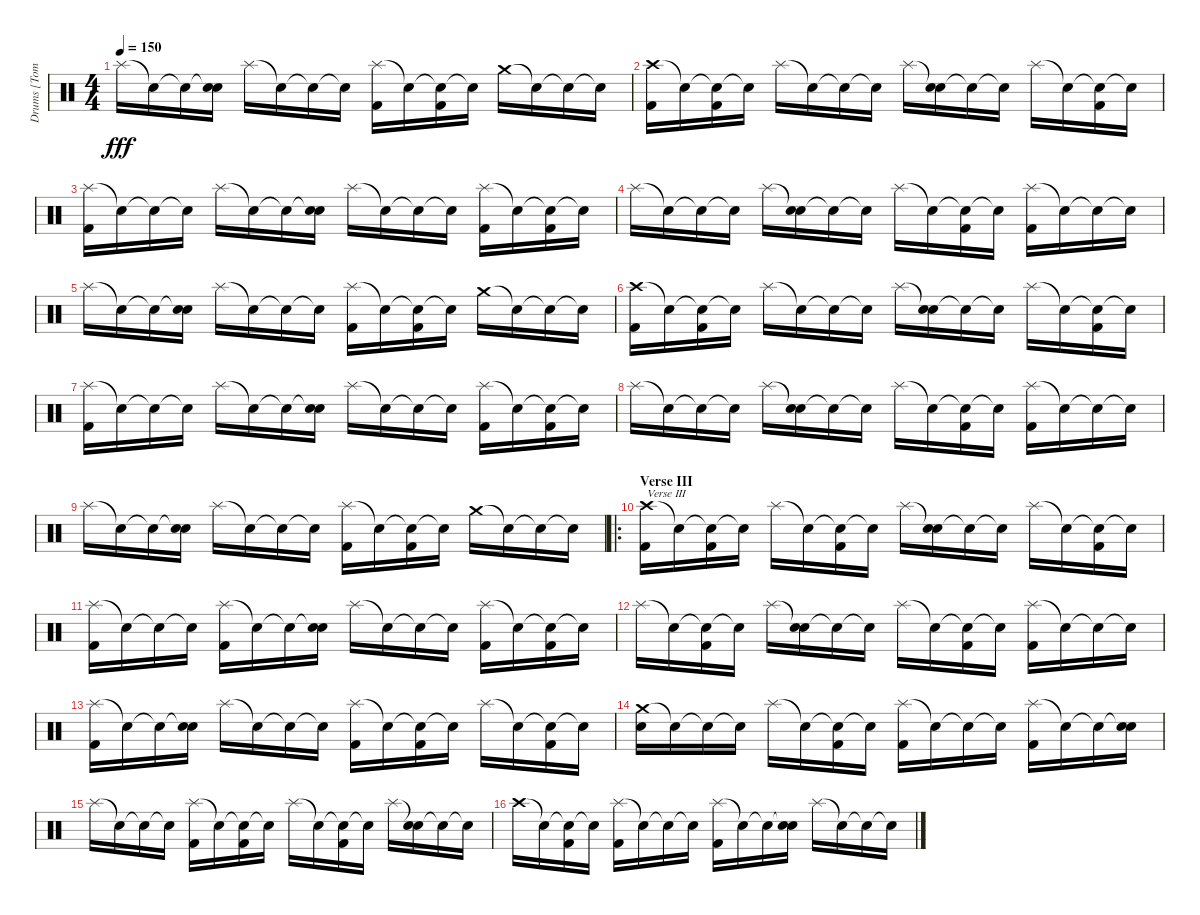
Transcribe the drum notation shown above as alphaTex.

\track ("Drums [Tomas Haake]" "Drums [Tom") {instrument percussion}
\staff {score}
\articulation defaults
\ts (4 4)
\tempo 150
\clef neutral
\ks c "Splash (hit)".16{dy fff} "Snare (hit)"{t}.16 "Snare (hit)"{t}.16
("Snare (hit)"{t} "Electric Snare (hit)").16 "Splash (hit)".16 "Snare (hit)"{t}.16 "Snare (hit)"{t}.16 "Snare (hit)"{t}.16 ("Splash (hit)" "Kick (hit) 2").16 "Snare (hit)"{t}.16 ("Snare (hit)"{t} "Kick (hit) 2").16 "Snare (hit)"{t}.16 "Crash medium (hit)".16 "Snare (hit)"{t}.16 "Snare (hit)"{t}.16 "Snare (hit)"{t}.16 |
("Crash high (hit)" "Kick (hit) 2").16 "Snare (hit)"{t}.16 ("Snare (hit)"{t} "Kick (hit) 2").16 "Snare (hit)"{t}.16 "Splash (hit)".16 "Snare (hit)"{t}.16 "Snare (hit)"{t}.16 "Snare (hit)"{t}.16 "Splash (hit)".16 ("Snare (hit)"{t} "Electric Snare (hit)").16 "Snare (hit)"{t}.16 "Snare (hit)"{t}.16 "Splash (hit)".16 "Snare (hit)"{t}.16 ("Snare (hit)"{t} "Kick (hit) 2").16 "Snare (hit)"{t}.16 |
("Splash (hit)" "Kick (hit) 2").16 "Snare (hit)"{t}.16 "Snare (hit)"{t}.16 "Snare (hit)"{t}.16 "Splash (hit)".16 "Snare (hit)"{t}.16 "Snare (hit)"{t}.16 ("Snare (hit)"{t} "Electric Snare (hit)").16 "Splash (hit)".16 "Snare (hit)"{t}.16 "Snare (hit)"{t}.16 "Snare (hit)"{t}.16 ("Splash (hit)" "Kick (hit) 2").16 "Snare (hit)"{t}.16 ("Snare (hit)"{t} "Kick (hit) 2").16 "Snare (hit)"{t}.16 |
"Splash (hit)".16 "Snare (hit)"{t}.16 "Snare (hit)"{t}.16 "Snare (hit)"{t}.16 "Splash (hit)".16 ("Snare (hit)"{t} "Electric Snare (hit)").16 "Snare (hit)"{t}.16 "Snare (hit)"{t}.16 "Splash (hit)".16 "Snare (hit)"{t}.16 ("Snare (hit)"{t} "Kick (hit) 2").16 "Snare (hit)"{t}.16 ("Splash (hit)" "Kick (hit) 2").16 "Snare (hit)"{t}.16 "Snare (hit)"{t}.16 "Snare (hit)"{t}.16 |
"Splash (hit)".16 "Snare (hit)"{t}.16 "Snare (hit)"{t}.16 ("Snare (hit)"{t} "Electric Snare (hit)").16 "Splash (hit)".16 "Snare (hit)"{t}.16 "Snare (hit)"{t}.16 "Snare (hit)"{t}.16 ("Splash (hit)" "Kick (hit) 2").16 "Snare (hit)"{t}.16 ("Snare (hit)"{t} "Kick (hit) 2").16 "Snare (hit)"{t}.16 "Crash medium (hit)".16 "Snare (hit)"{t}.16 "Snare (hit)"{t}.16 "Snare (hit)"{t}.16 |
("Crash high (hit)" "Kick (hit) 2").16 "Snare (hit)"{t}.16 ("Snare (hit)"{t} "Kick (hit) 2").16 "Snare (hit)"{t}.16 "Splash (hit)".16 "Snare (hit)"{t}.16 "Snare (hit)"{t}.16 "Snare (hit)"{t}.16 "Splash (hit)".16 ("Snare (hit)"{t} "Electric Snare (hit)").16 "Snare (hit)"{t}.16 "Snare (hit)"{t}.16 "Splash (hit)".16 "Snare (hit)"{t}.16 ("Snare (hit)"{t} "Kick (hit) 2").16 "Snare (hit)"{t}.16 |
("Splash (hit)" "Kick (hit) 2").16 "Snare (hit)"{t}.16 "Snare (hit)"{t}.16 "Snare (hit)"{t}.16 "Splash (hit)".16 "Snare (hit)"{t}.16 "Snare (hit)"{t}.16 ("Snare (hit)"{t} "Electric Snare (hit)").16 "Splash (hit)".16 "Snare (hit)"{t}.16 "Snare (hit)"{t}.16 "Snare (hit)"{t}.16 ("Splash (hit)" "Kick (hit) 2").16 "Snare (hit)"{t}.16 ("Snare (hit)"{t} "Kick (hit) 2").16 "Snare (hit)"{t}.16 |
"Splash (hit)".16 "Snare (hit)"{t}.16 "Snare (hit)"{t}.16 "Snare (hit)"{t}.16 "Splash (hit)".16 ("Snare (hit)"{t} "Electric Snare (hit)").16 "Snare (hit)"{t}.16 "Snare (hit)"{t}.16 "Splash (hit)".16 "Snare (hit)"{t}.16 ("Snare (hit)"{t} "Kick (hit) 2").16 "Snare (hit)"{t}.16 ("Splash (hit)" "Kick (hit) 2").16 "Snare (hit)"{t}.16 "Snare (hit)"{t}.16 "Snare (hit)"{t}.16 |
"Splash (hit)".16 "Snare (hit)"{t}.16 "Snare (hit)"{t}.16 ("Snare (hit)"{t} "Electric Snare (hit)").16 "Splash (hit)".16 "Snare (hit)"{t}.16 "Snare (hit)"{t}.16 "Snare (hit)"{t}.16 ("Splash (hit)" "Kick (hit) 2").16 "Snare (hit)"{t}.16 ("Snare (hit)"{t} "Kick (hit) 2").16 "Snare (hit)"{t}.16 "Crash medium (hit)".16 "Snare (hit)"{t}.16 "Snare (hit)"{t}.16 "Snare (hit)"{t}.16 |
\ro
\section ("" "Verse III")
("Crash high (hit)" "Kick (hit) 2").16{txt "Verse III"} "Snare (hit)"{t}.16 ("Snare (hit)"{t} "Kick (hit) 2").16 "Snare (hit)"{t}.16 "Splash (hit)".16 "Snare (hit)"{t}.16 ("Snare (hit)"{t} "Kick (hit) 2").16 "Snare (hit)"{t}.16 "Splash (hit)".16 ("Snare (hit)"{t} "Electric Snare (hit)").16 "Snare (hit)"{t}.16 "Snare (hit)"{t}.16 "Splash (hit)".16 "Snare (hit)"{t}.16 ("Snare (hit)"{t} "Kick (hit) 2").16 "Snare (hit)"{t}.16 |
("Splash (hit)" "Kick (hit) 2").16 "Snare (hit)"{t}.16 "Snare (hit)"{t}.16 "Snare (hit)"{t}.16 ("Splash (hit)" "Kick (hit) 2").16 "Snare (hit)"{t}.16 "Snare (hit)"{t}.16 ("Snare (hit)"{t} "Electric Snare (hit)").16 "Splash (hit)".16 "Snare (hit)"{t}.16 "Snare (hit)"{t}.16 "Snare (hit)"{t}.16 ("Splash (hit)" "Kick (hit) 2").16 "Snare (hit)"{t}.16 ("Snare (hit)"{t} "Kick (hit) 2").16 "Snare (hit)"{t}.16 |
"Splash (hit)".16 "Snare (hit)"{t}.16 ("Snare (hit)"{t} "Kick (hit) 2").16 "Snare (hit)"{t}.16 "Splash (hit)".16 ("Snare (hit)"{t} "Electric Snare (hit)").16 "Snare (hit)"{t}.16 "Snare (hit)"{t}.16 "Splash (hit)".16 "Snare (hit)"{t}.16 ("Snare (hit)"{t} "Kick (hit) 2").16 "Snare (hit)"{t}.16 ("Splash (hit)" "Kick (hit) 2").16 "Snare (hit)"{t}.16 "Snare (hit)"{t}.16 "Snare (hit)"{t}.16 |
("Splash (hit)" "Kick (hit) 2").16 "Snare (hit)"{t}.16 "Snare (hit)"{t}.16 ("Snare (hit)"{t} "Electric Snare (hit)").16 "Splash (hit)".16 "Snare (hit)"{t}.16 "Snare (hit)"{t}.16 "Snare (hit)"{t}.16 ("Splash (hit)" "Kick (hit) 2").16 "Snare (hit)"{t}.16 ("Snare (hit)"{t} "Kick (hit) 2").16 "Snare (hit)"{t}.16 "Splash (hit)".16 "Snare (hit)"{t}.16 ("Snare (hit)"{t} "Kick (hit) 2").16 "Snare (hit)"{t}.16 |
("Crash medium (hit)" "Electric Snare (hit)").16 "Snare (hit)"{t}.16 "Snare (hit)"{t}.16 "Snare (hit)"{t}.16 "Splash (hit)".16 "Snare (hit)"{t}.16 ("Snare (hit)"{t} "Kick (hit) 2").16 "Snare (hit)"{t}.16 ("Splash (hit)" "Kick (hit) 2").16 "Snare (hit)"{t}.16 "Snare (hit)"{t}.16 "Snare (hit)"{t}.16 ("Splash (hit)" "Kick (hit) 2").16 "Snare (hit)"{t}.16 "Snare (hit)"{t}.16 ("Snare (hit)"{t} "Electric Snare (hit)").16 |
"Splash (hit)".16 "Snare (hit)"{t}.16 "Snare (hit)"{t}.16 "Snare (hit)"{t}.16 ("Splash (hit)" "Kick (hit) 2").16 "Snare (hit)"{t}.16 ("Snare (hit)"{t} "Kick (hit) 2").16 "Snare (hit)"{t}.16 "Splash (hit)".16 "Snare (hit)"{t}.16 ("Snare (hit)"{t} "Kick (hit) 2").16 "Snare (hit)"{t}.16 "Splash (hit)".16 ("Snare (hit)"{t} "Electric Snare (hit)").16 "Snare (hit)"{t}.16 "Snare (hit)"{t}.16 |
"Crash high (hit)".16 "Snare (hit)"{t}.16 ("Snare (hit)"{t} "Kick (hit) 2").16 "Snare (hit)"{t}.16 ("Splash (hit)" "Kick (hit) 2").16 "Snare (hit)"{t}.16 "Snare (hit)"{t}.16 "Snare (hit)"{t}.16 ("Splash (hit)" "Kick (hit) 2").16 "Snare (hit)"{t}.16 "Snare (hit)"{t}.16 ("Snare (hit)"{t} "Electric Snare (hit)").16 "Splash (hit)".16 "Snare (hit)"{t}.16 "Snare (hit)"{t}.16 "Snare (hit)"{t}.16
